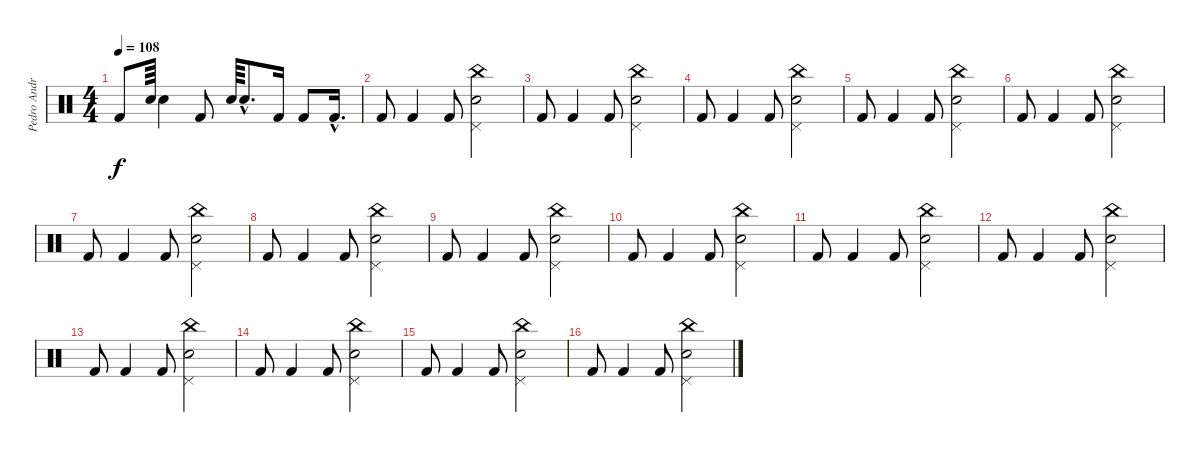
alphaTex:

\track ("Pedro Andreu" "Pedro Andr") {instrument percussion}
\staff {score}
\articulation defaults
\ts (4 4)
\tempo 108
\clef neutral
\ks c "Kick (hit) 2".8{dy f} "Snare (hit) 2".64 "Snare (hit) 2".4 "Kick (hit) 2".8 "Snare (hit) 2".64 "Snare (hit) 2"{hac}.8{d} "Kick (hit) 2".16 "Kick (hit) 2".8 "Kick (hit) 2"{hac}.16{d}
|
"Kick (hit) 2".8 "Kick (hit) 2".4 "Kick (hit) 2".8 ("Snare (hit) 2" "Pedal Hi-Hat (hit)" "China (hit)").2 |
"Kick (hit) 2".8 "Kick (hit) 2".4 "Kick (hit) 2".8 ("Snare (hit) 2" "Pedal Hi-Hat (hit)" "China (hit)").2 |
"Kick (hit) 2".8 "Kick (hit) 2".4 "Kick (hit) 2".8 ("Snare (hit) 2" "Pedal Hi-Hat (hit)" "China (hit)").2 |
"Kick (hit) 2".8 "Kick (hit) 2".4 "Kick (hit) 2".8 ("Snare (hit) 2" "Pedal Hi-Hat (hit)" "China (hit)").2 |
"Kick (hit) 2".8 "Kick (hit) 2".4 "Kick (hit) 2".8 ("Snare (hit) 2" "Pedal Hi-Hat (hit)" "China (hit)").2 |
"Kick (hit) 2".8 "Kick (hit) 2".4 "Kick (hit) 2".8 ("Snare (hit) 2" "Pedal Hi-Hat (hit)" "China (hit)").2 |
"Kick (hit) 2".8 "Kick (hit) 2".4 "Kick (hit) 2".8 ("Snare (hit) 2" "Pedal Hi-Hat (hit)" "China (hit)").2 |
"Kick (hit) 2".8 "Kick (hit) 2".4 "Kick (hit) 2".8 ("Snare (hit) 2" "Pedal Hi-Hat (hit)" "China (hit)").2 |
"Kick (hit) 2".8 "Kick (hit) 2".4 "Kick (hit) 2".8 ("Snare (hit) 2" "Pedal Hi-Hat (hit)" "China (hit)").2 |
"Kick (hit) 2".8 "Kick (hit) 2".4 "Kick (hit) 2".8 ("Snare (hit) 2" "Pedal Hi-Hat (hit)" "China (hit)").2 |
"Kick (hit) 2".8 "Kick (hit) 2".4 "Kick (hit) 2".8 ("Snare (hit) 2" "Pedal Hi-Hat (hit)" "China (hit)").2 |
"Kick (hit) 2".8 "Kick (hit) 2".4 "Kick (hit) 2".8 ("Snare (hit) 2" "Pedal Hi-Hat (hit)" "China (hit)").2 |
"Kick (hit) 2".8 "Kick (hit) 2".4 "Kick (hit) 2".8 ("Snare (hit) 2" "Pedal Hi-Hat (hit)" "China (hit)").2 |
"Kick (hit) 2".8 "Kick (hit) 2".4 "Kick (hit) 2".8 ("Snare (hit) 2" "Pedal Hi-Hat (hit)" "China (hit)").2 |
"Kick (hit) 2".8 "Kick (hit) 2".4 "Kick (hit) 2".8 ("Snare (hit) 2" "Pedal Hi-Hat (hit)" "China (hit)").2
